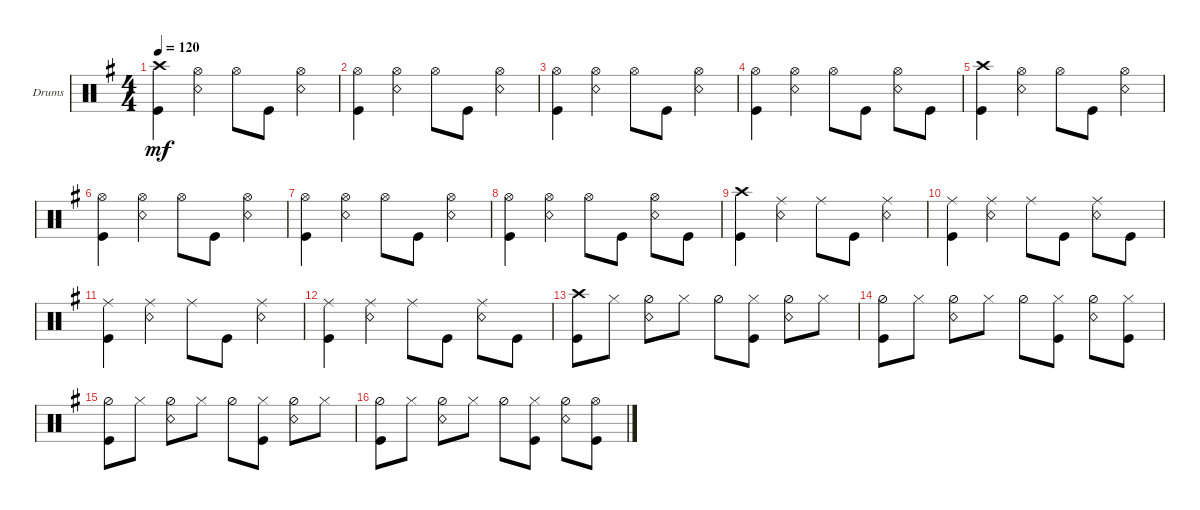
\defaultSystemsLayout 4
\bracketExtendMode groupsimilarinstruments
\firstSystemTrackNameOrientation horizontal
\otherSystemsTrackNameOrientation horizontal
\track ("Drumkit" "Drums") {instrument percussion}
\staff {score}
\articulation defaults
\ts (4 4)
\tempo 120
\clef neutral
\ks eminor
("Kick (hit)" "Crash high (hit)").4{dy mf} ("Hi-Hat (open)" "Snare (rim shot)").4 "Hi-Hat (open)".8 "Kick (hit)".8 ("Hi-Hat (open)" "Snare (rim shot)").4 |
("Kick (hit)" "Hi-Hat (open)").4 ("Hi-Hat (open)" "Snare (rim shot)").4 "Hi-Hat (open)".8 "Kick (hit)".8 ("Hi-Hat (open)" "Snare (rim shot)").4 |
("Kick (hit)" "Hi-Hat (open)").4 ("Hi-Hat (open)" "Snare (rim shot)").4 "Hi-Hat (open)".8 "Kick (hit)".8 ("Hi-Hat (open)" "Snare (rim shot)").4 |
("Kick (hit)" "Hi-Hat (open)").4 ("Hi-Hat (open)" "Snare (rim shot)").4 "Hi-Hat (open)".8 "Kick (hit)".8 ("Hi-Hat (open)" "Snare (rim shot)").8 "Kick (hit)".8 |
("Kick (hit)" "Crash high (hit)").4 ("Hi-Hat (open)" "Snare (rim shot)").4 "Hi-Hat (open)".8 "Kick (hit)".8 ("Hi-Hat (open)" "Snare (rim shot)").4 |
("Kick (hit)" "Hi-Hat (open)").4 ("Hi-Hat (open)" "Snare (rim shot)").4 "Hi-Hat (open)".8 "Kick (hit)".8 ("Hi-Hat (open)" "Snare (rim shot)").4 |
("Kick (hit)" "Hi-Hat (open)").4 ("Hi-Hat (open)" "Snare (rim shot)").4 "Hi-Hat (open)".8 "Kick (hit)".8 ("Hi-Hat (open)" "Snare (rim shot)").4 |
("Kick (hit)" "Hi-Hat (open)").4 ("Hi-Hat (open)" "Snare (rim shot)").4 "Hi-Hat (open)".8 "Kick (hit)".8 ("Hi-Hat (open)" "Snare (rim shot)").8 "Kick (hit)".8 |
("Kick (hit)" "Crash high (hit)").4 ("Snare (rim shot)" "Ride (middle)").4 "Ride (middle)".8 "Kick (hit)".8 ("Ride (middle)" "Snare (rim shot)").4 |
("Kick (hit)" "Ride (middle)").4 ("Snare (rim shot)" "Ride (middle)").4 "Ride (middle)".8 "Kick (hit)".8 ("Ride (middle)" "Snare (rim shot)").8 "Kick (hit)".8 |
("Kick (hit)" "Ride (middle)").4 ("Snare (rim shot)" "Ride (middle)").4 "Ride (middle)".8 "Kick (hit)".8 ("Ride (middle)" "Snare (rim shot)").4 |
("Kick (hit)" "Ride (middle)").4 ("Snare (rim shot)" "Ride (middle)").4 "Ride (middle)".8 "Kick (hit)".8 ("Ride (middle)" "Snare (rim shot)").8 "Kick (hit)".8 |
("Kick (hit)" "Crash high (hit)").8 "Hi-Hat (closed)".8 ("Hi-Hat (half)" "Snare (rim shot)").8 "Hi-Hat (closed)".8 "Hi-Hat (half)".8 ("Kick (hit)" "Hi-Hat (closed)").8 ("Hi-Hat (half)" "Snare (rim shot)").8 "Hi-Hat (closed)".8 |
("Kick (hit)" "Hi-Hat (half)").8 "Hi-Hat (closed)".8 ("Hi-Hat (half)" "Snare (rim shot)").8 "Hi-Hat (closed)".8 "Hi-Hat (half)".8 ("Kick (hit)" "Hi-Hat (closed)").8 ("Hi-Hat (half)" "Snare (rim shot)").8 ("Hi-Hat (closed)" "Kick (hit)").8 |
("Kick (hit)" "Hi-Hat (half)").8 "Hi-Hat (closed)".8 ("Hi-Hat (half)" "Snare (rim shot)").8 "Hi-Hat (closed)".8 "Hi-Hat (half)".8 ("Kick (hit)" "Hi-Hat (closed)").8 ("Hi-Hat (half)" "Snare (rim shot)").8 "Hi-Hat (closed)".8 |
("Kick (hit)" "Hi-Hat (half)").8 "Hi-Hat (closed)".8 ("Hi-Hat (half)" "Snare (rim shot)").8 "Hi-Hat (closed)".8 "Hi-Hat (half)".8 ("Kick (hit)" "Hi-Hat (closed)").8 ("Hi-Hat (half)" "Snare (rim shot)").8 ("Hi-Hat (open)" "Kick (hit)").8
